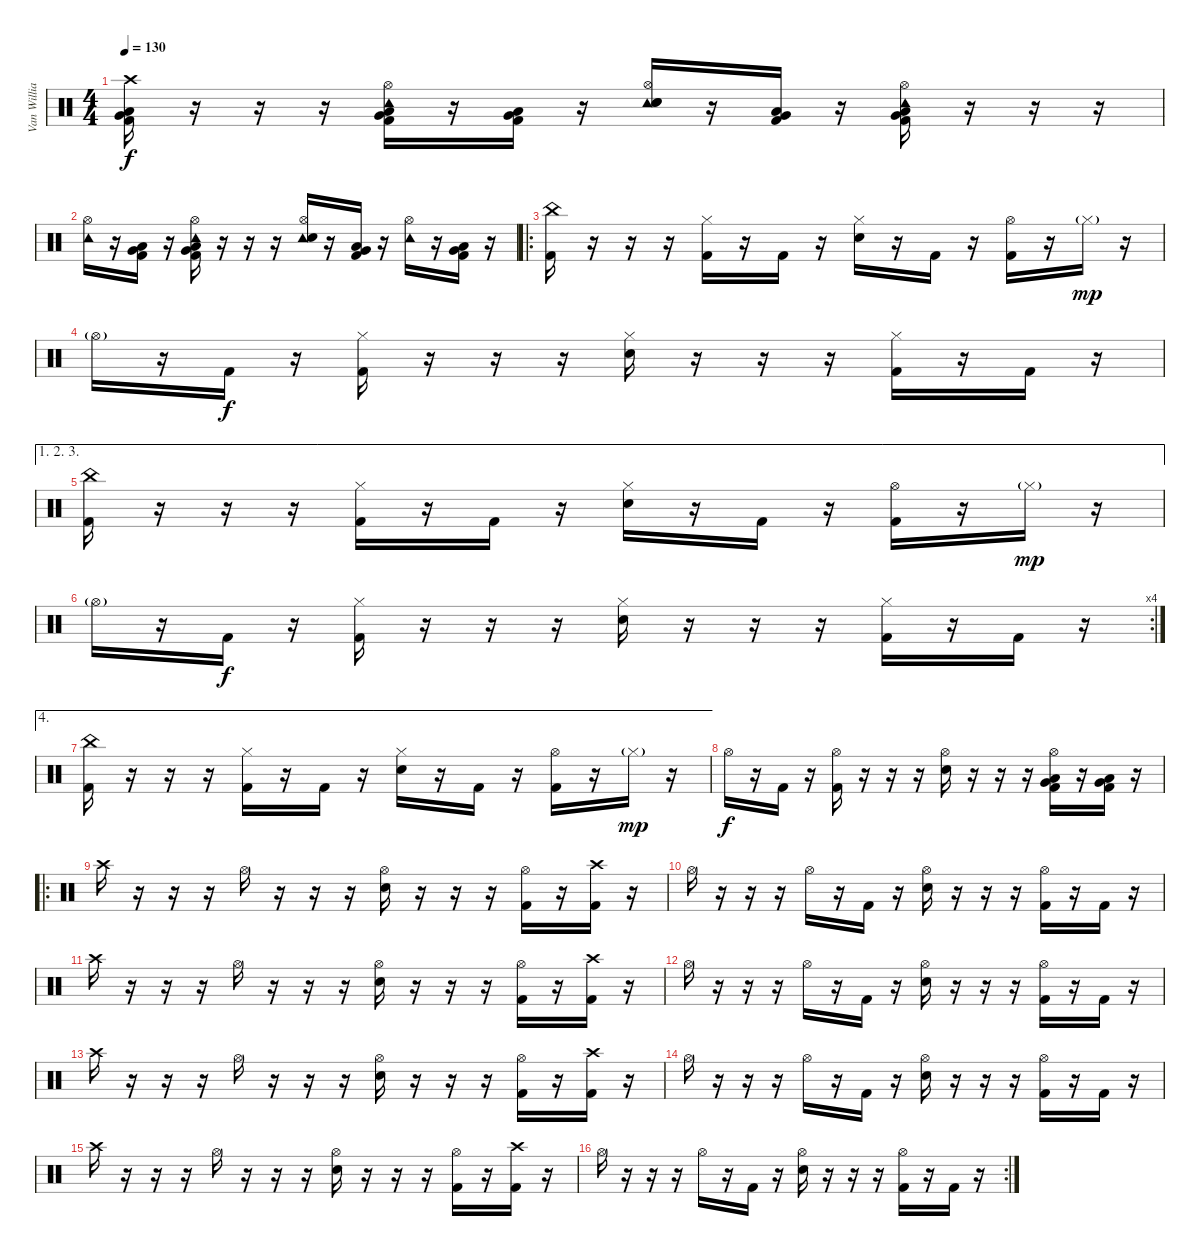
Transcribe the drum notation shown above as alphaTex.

\track ("Van Williams" "Van Willia") {instrument percussion}
\staff {score}
\articulation defaults
\ts (4 4)
\tempo 130
\clef neutral
\ks c
("Crash high (hit)" "Kick (hit) 2" "Very Low Tom (hit)" "Low Floor Tom (hit)").16{dy f} r.16 r.16 r.16 ("Tambourine (hit)" "Hi-Hat (open)" "Kick (hit) 2" "Very Low Tom (hit)" "Low Floor Tom (hit)").16 r.16 ("Kick (hit) 2" "Very Low Tom (hit)" "Low Floor Tom (hit)").16 r.16 ("Tambourine (hit)" "Hi-Hat (open)" "Electric Snare (hit)" "Electric Snare (hit)").16 r.16 ("Kick (hit) 2" "Very Low Tom (hit)" "Low Floor Tom (hit)").16 r.16 ("Tambourine (hit)" "Hi-Hat (open)" "Kick (hit) 2" "Very Low Tom (hit)" "Low Floor Tom (hit)").16 r.16 r.16 r.16 |
("Tambourine (hit)" "Hi-Hat (open)").16 r.16 ("Kick (hit) 2" "Very Low Tom (hit)" "Low Floor Tom (hit)").16 r.16 ("Tambourine (hit)" "Hi-Hat (open)" "Kick (hit) 2" "Very Low Tom (hit)" "Low Floor Tom (hit)").16 r.16 r.16 r.16 ("Tambourine (hit)" "Hi-Hat (open)" "Electric Snare (hit)").16 r.16 ("Kick (hit) 2" "Very Low Tom (hit)" "Low Floor Tom (hit)").16 r.16 ("Tambourine (hit)" "Hi-Hat (open)").16 r.16 ("Kick (hit) 2" "Very Low Tom (hit)" "Low Floor Tom (hit)").16 r.16 |
\ro
("China (hit)" "Kick (hit) 2").16 r.16 r.16 r.16 ("Hi-Hat (closed)" "Kick (hit) 2").16 r.16 "Kick (hit) 2".16 r.16 ("Hi-Hat (closed)" "Electric Snare (hit)").16 r.16 "Kick (hit) 2".16 r.16 ("Hi-Hat (open)" "Kick (hit) 2").16 r.16 "Hi-Hat (closed)"{g}.16{dy mp} r.16 |
"Hi-Hat (open)"{g}.16 r.16 "Kick (hit) 2".16{dy f} r.16 ("Hi-Hat (closed)" "Kick (hit) 2").16 r.16 r.16 r.16 ("Hi-Hat (closed)" "Electric Snare (hit)").16 r.16 r.16 r.16 ("Hi-Hat (closed)" "Kick (hit) 2").16 r.16 "Kick (hit) 2".16 r.16 |
\ae (1 2 3)
("China (hit)" "Kick (hit) 2").16 r.16 r.16 r.16 ("Hi-Hat (closed)" "Kick (hit) 2").16 r.16 "Kick (hit) 2".16 r.16 ("Hi-Hat (closed)" "Electric Snare (hit)").16 r.16 "Kick (hit) 2".16 r.16 ("Hi-Hat (open)" "Kick (hit) 2").16 r.16 "Hi-Hat (closed)"{g}.16{dy mp} r.16 |
\rc 4 "Hi-Hat (open)"{g}.16
r.16 "Kick (hit) 2".16{dy f} r.16 ("Hi-Hat (closed)" "Kick (hit) 2").16 r.16 r.16 r.16 ("Hi-Hat (closed)" "Electric Snare (hit)").16 r.16 r.16 r.16 ("Hi-Hat (closed)" "Kick (hit) 2").16 r.16 "Kick (hit) 2".16 r.16 |
\ae 4
("China (hit)" "Kick (hit) 2").16 r.16 r.16 r.16 ("Hi-Hat (closed)" "Kick (hit) 2").16 r.16 "Kick (hit) 2".16 r.16 ("Hi-Hat (closed)" "Electric Snare (hit)").16 r.16 "Kick (hit) 2".16 r.16 ("Hi-Hat (open)" "Kick (hit) 2").16 r.16 "Hi-Hat (closed)"{g}.16{dy mp} r.16 |
"Hi-Hat (open)".16{dy f} r.16 "Kick (hit) 2".16 r.16 ("Hi-Hat (open)" "Kick (hit) 2").16 r.16 r.16 r.16 ("Hi-Hat (open)" "Electric Snare (hit)").16 r.16 r.16 r.16 ("Hi-Hat (open)" "Kick (hit) 2" "Very Low Tom (hit)" "Low Floor Tom (hit)").16 r.16 ("Kick (hit) 2" "Very Low Tom (hit)" "Low Floor Tom (hit)").16 r.16 |
\ro "Crash high (hit)".16
r.16 r.16 r.16 "Hi-Hat (open)".16 r.16 r.16 r.16 ("Hi-Hat (open)" "Electric Snare (hit)").16 r.16 r.16 r.16 ("Hi-Hat (open)" "Kick (hit) 2").16 r.16 ("Crash high (hit)" "Kick (hit) 2").16 r.16 |
"Hi-Hat (open)".16 r.16 r.16 r.16 "Hi-Hat (open)".16 r.16 "Kick (hit) 2".16 r.16 ("Hi-Hat (open)" "Electric Snare (hit)").16 r.16 r.16 r.16 ("Hi-Hat (open)" "Kick (hit) 2").16 r.16 "Kick (hit) 2".16 r.16 |
"Crash high (hit)".16 r.16 r.16 r.16 "Hi-Hat (open)".16 r.16 r.16 r.16 ("Hi-Hat (open)" "Electric Snare (hit)").16 r.16 r.16 r.16 ("Hi-Hat (open)" "Kick (hit) 2").16 r.16 ("Crash high (hit)" "Kick (hit) 2").16 r.16 |
"Hi-Hat (open)".16 r.16 r.16 r.16 "Hi-Hat (open)".16 r.16 "Kick (hit) 2".16 r.16 ("Hi-Hat (open)" "Electric Snare (hit)").16 r.16 r.16 r.16 ("Hi-Hat (open)" "Kick (hit) 2").16 r.16 "Kick (hit) 2".16 r.16 |
"Crash high (hit)".16 r.16 r.16 r.16 "Hi-Hat (open)".16 r.16 r.16 r.16 ("Hi-Hat (open)" "Electric Snare (hit)").16 r.16 r.16 r.16 ("Hi-Hat (open)" "Kick (hit) 2").16 r.16 ("Crash high (hit)" "Kick (hit) 2").16 r.16 |
"Hi-Hat (open)".16 r.16 r.16 r.16 "Hi-Hat (open)".16 r.16 "Kick (hit) 2".16 r.16 ("Hi-Hat (open)" "Electric Snare (hit)").16 r.16 r.16 r.16 ("Hi-Hat (open)" "Kick (hit) 2").16 r.16 "Kick (hit) 2".16 r.16 |
"Crash high (hit)".16 r.16 r.16 r.16 "Hi-Hat (open)".16 r.16 r.16 r.16 ("Hi-Hat (open)" "Electric Snare (hit)").16 r.16 r.16 r.16 ("Hi-Hat (open)" "Kick (hit) 2").16 r.16 ("Crash high (hit)" "Kick (hit) 2").16 r.16 |
\rc 2 "Hi-Hat (open)".16
r.16 r.16 r.16 "Hi-Hat (open)".16 r.16 "Kick (hit) 2".16 r.16 ("Hi-Hat (open)" "Electric Snare (hit)").16 r.16 r.16 r.16 ("Hi-Hat (open)" "Kick (hit) 2").16 r.16 "Kick (hit) 2".16 r.16
